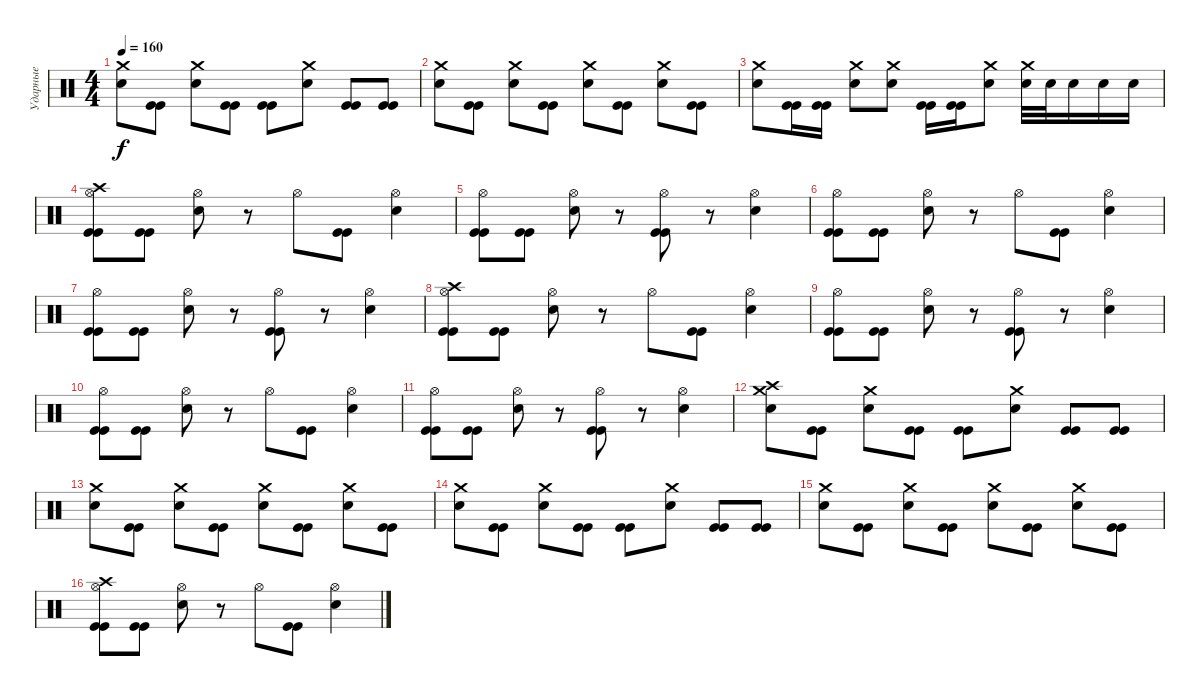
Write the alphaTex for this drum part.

\track ("Ударные" "Ударные") {instrument percussion}
\staff {score}
\articulation defaults
\ts (4 4)
\tempo 160
\clef neutral
\ks c
("Crash medium (hit)" "Electric Snare (hit)").8{dy f} ("Kick (hit)" "Kick (hit)").8 ("Crash medium (hit)" "Electric Snare (hit)").8 ("Kick (hit)" "Kick (hit)").8 ("Kick (hit)" "Kick (hit)").8 ("Crash medium (hit)" "Electric Snare (hit)").8 ("Kick (hit)" "Kick (hit)").8 ("Kick (hit)" "Kick (hit)").8 |
("Crash medium (hit)" "Electric Snare (hit)").8 ("Kick (hit)" "Kick (hit)").8 ("Crash medium (hit)" "Electric Snare (hit)").8 ("Kick (hit)" "Kick (hit)").8 ("Crash medium (hit)" "Electric Snare (hit)").8 ("Kick (hit)" "Kick (hit)").8 ("Crash medium (hit)" "Electric Snare (hit)").8 ("Kick (hit)" "Kick (hit)").8 |
("Crash medium (hit)" "Electric Snare (hit)").8 ("Kick (hit)" "Kick (hit)").16 ("Kick (hit)" "Kick (hit)").16 ("Crash medium (hit)" "Electric Snare (hit)").8 ("Crash medium (hit)" "Electric Snare (hit)").8 ("Kick (hit)" "Kick (hit)").16 ("Kick (hit)" "Kick (hit)").16 ("Crash medium (hit)" "Electric Snare (hit)").8 ("Crash medium (hit)" "Electric Snare (hit)").32 "Electric Snare (hit)".32 "Electric Snare (hit)".16 "Electric Snare (hit)".16 "Electric Snare (hit)".16 |
("Crash high (hit)" "Hi-Hat (open)" "Kick (hit)" "Kick (hit)").8 ("Kick (hit)" "Kick (hit)").8 ("Hi-Hat (open)" "Electric Snare (hit)").8 r.8 "Hi-Hat (open)".8 ("Kick (hit)" "Kick (hit)").8 ("Hi-Hat (open)" "Electric Snare (hit)").4 |
("Hi-Hat (open)" "Kick (hit)" "Kick (hit)").8 ("Kick (hit)" "Kick (hit)").8 ("Hi-Hat (open)" "Electric Snare (hit)").8 r.8 ("Hi-Hat (open)" "Kick (hit)" "Kick (hit)").8 r.8 ("Hi-Hat (open)" "Electric Snare (hit)").4 |
("Hi-Hat (open)" "Kick (hit)" "Kick (hit)").8 ("Kick (hit)" "Kick (hit)").8 ("Hi-Hat (open)" "Electric Snare (hit)").8 r.8 "Hi-Hat (open)".8 ("Kick (hit)" "Kick (hit)").8 ("Hi-Hat (open)" "Electric Snare (hit)").4 |
("Hi-Hat (open)" "Kick (hit)" "Kick (hit)").8 ("Kick (hit)" "Kick (hit)").8 ("Hi-Hat (open)" "Electric Snare (hit)").8 r.8 ("Hi-Hat (open)" "Kick (hit)" "Kick (hit)").8 r.8 ("Hi-Hat (open)" "Electric Snare (hit)").4 |
("Crash high (hit)" "Hi-Hat (open)" "Kick (hit)" "Kick (hit)").8 ("Kick (hit)" "Kick (hit)").8 ("Hi-Hat (open)" "Electric Snare (hit)").8 r.8 "Hi-Hat (open)".8 ("Kick (hit)" "Kick (hit)").8 ("Hi-Hat (open)" "Electric Snare (hit)").4 |
("Hi-Hat (open)" "Kick (hit)" "Kick (hit)").8 ("Kick (hit)" "Kick (hit)").8 ("Hi-Hat (open)" "Electric Snare (hit)").8 r.8 ("Hi-Hat (open)" "Kick (hit)" "Kick (hit)").8 r.8 ("Hi-Hat (open)" "Electric Snare (hit)").4 |
("Hi-Hat (open)" "Kick (hit)" "Kick (hit)").8 ("Kick (hit)" "Kick (hit)").8 ("Hi-Hat (open)" "Electric Snare (hit)").8 r.8 "Hi-Hat (open)".8 ("Kick (hit)" "Kick (hit)").8 ("Hi-Hat (open)" "Electric Snare (hit)").4 |
("Hi-Hat (open)" "Kick (hit)" "Kick (hit)").8 ("Kick (hit)" "Kick (hit)").8 ("Hi-Hat (open)" "Electric Snare (hit)").8 r.8 ("Hi-Hat (open)" "Kick (hit)" "Kick (hit)").8 r.8 ("Hi-Hat (open)" "Electric Snare (hit)").4 |
("Crash high (hit)" "Crash medium (hit)" "Electric Snare (hit)").8 ("Kick (hit)" "Kick (hit)").8 ("Crash medium (hit)" "Electric Snare (hit)").8 ("Kick (hit)" "Kick (hit)").8 ("Kick (hit)" "Kick (hit)").8 ("Crash medium (hit)" "Electric Snare (hit)").8 ("Kick (hit)" "Kick (hit)").8 ("Kick (hit)" "Kick (hit)").8 |
("Crash medium (hit)" "Electric Snare (hit)").8 ("Kick (hit)" "Kick (hit)").8 ("Crash medium (hit)" "Electric Snare (hit)").8 ("Kick (hit)" "Kick (hit)").8 ("Crash medium (hit)" "Electric Snare (hit)").8 ("Kick (hit)" "Kick (hit)").8 ("Crash medium (hit)" "Electric Snare (hit)").8 ("Kick (hit)" "Kick (hit)").8 |
("Crash medium (hit)" "Electric Snare (hit)").8 ("Kick (hit)" "Kick (hit)").8 ("Crash medium (hit)" "Electric Snare (hit)").8 ("Kick (hit)" "Kick (hit)").8 ("Kick (hit)" "Kick (hit)").8 ("Crash medium (hit)" "Electric Snare (hit)").8 ("Kick (hit)" "Kick (hit)").8 ("Kick (hit)" "Kick (hit)").8 |
("Crash medium (hit)" "Electric Snare (hit)").8 ("Kick (hit)" "Kick (hit)").8 ("Crash medium (hit)" "Electric Snare (hit)").8 ("Kick (hit)" "Kick (hit)").8 ("Crash medium (hit)" "Electric Snare (hit)").8 ("Kick (hit)" "Kick (hit)").8 ("Crash medium (hit)" "Electric Snare (hit)").8 ("Kick (hit)" "Kick (hit)").8 |
("Crash high (hit)" "Hi-Hat (open)" "Kick (hit)" "Kick (hit)").8 ("Kick (hit)" "Kick (hit)").8 ("Hi-Hat (open)" "Electric Snare (hit)").8 r.8 "Hi-Hat (open)".8 ("Kick (hit)" "Kick (hit)").8 ("Hi-Hat (open)" "Electric Snare (hit)").4
